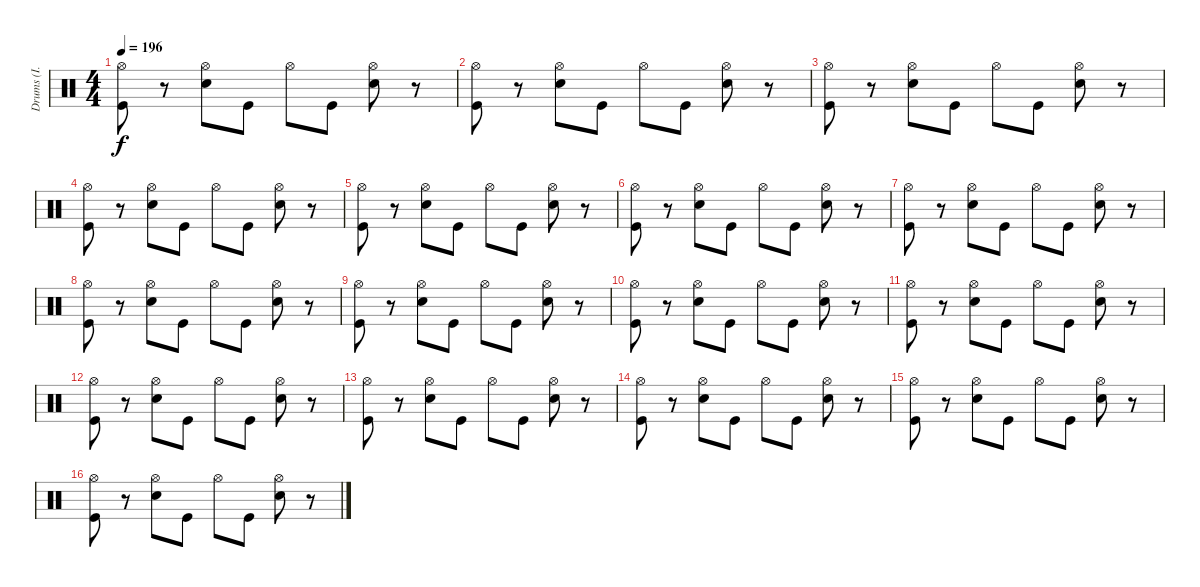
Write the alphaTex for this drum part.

\track ("Drums (I. Paice)" "Drums (I. ") {instrument percussion}
\staff {score}
\articulation defaults
\ts (4 4)
\tempo 196
\clef neutral
\ks c
("Hi-Hat (open)" "Kick (hit)").8{dy f} r.8 ("Hi-Hat (open)" "Snare (hit) 2").8 "Kick (hit)".8 "Hi-Hat (open)".8 "Kick (hit)".8 ("Hi-Hat (open)" "Snare (hit) 2").8 r.8 |
("Hi-Hat (open)" "Kick (hit)").8 r.8 ("Hi-Hat (open)" "Snare (hit) 2").8 "Kick (hit)".8 "Hi-Hat (open)".8 "Kick (hit)".8 ("Hi-Hat (open)" "Snare (hit) 2").8 r.8 |
("Hi-Hat (open)" "Kick (hit)").8 r.8 ("Hi-Hat (open)" "Snare (hit) 2").8 "Kick (hit)".8 "Hi-Hat (open)".8 "Kick (hit)".8 ("Hi-Hat (open)" "Snare (hit) 2").8 r.8 |
("Hi-Hat (open)" "Kick (hit)").8 r.8 ("Hi-Hat (open)" "Snare (hit) 2").8 "Kick (hit)".8 "Hi-Hat (open)".8 "Kick (hit)".8 ("Hi-Hat (open)" "Snare (hit) 2").8 r.8 |
("Hi-Hat (open)" "Kick (hit)").8 r.8 ("Hi-Hat (open)" "Snare (hit) 2").8 "Kick (hit)".8 "Hi-Hat (open)".8 "Kick (hit)".8 ("Hi-Hat (open)" "Snare (hit) 2").8 r.8 |
("Hi-Hat (open)" "Kick (hit)").8 r.8 ("Hi-Hat (open)" "Snare (hit) 2").8 "Kick (hit)".8 "Hi-Hat (open)".8 "Kick (hit)".8 ("Hi-Hat (open)" "Snare (hit) 2").8 r.8 |
("Hi-Hat (open)" "Kick (hit)").8 r.8 ("Hi-Hat (open)" "Snare (hit) 2").8 "Kick (hit)".8 "Hi-Hat (open)".8 "Kick (hit)".8 ("Hi-Hat (open)" "Snare (hit) 2").8 r.8 |
("Hi-Hat (open)" "Kick (hit)").8 r.8 ("Hi-Hat (open)" "Snare (hit) 2").8 "Kick (hit)".8 "Hi-Hat (open)".8 "Kick (hit)".8 ("Hi-Hat (open)" "Snare (hit) 2").8 r.8 |
("Hi-Hat (open)" "Kick (hit)").8 r.8 ("Hi-Hat (open)" "Snare (hit) 2").8 "Kick (hit)".8 "Hi-Hat (open)".8 "Kick (hit)".8 ("Hi-Hat (open)" "Snare (hit) 2").8 r.8 |
("Hi-Hat (open)" "Kick (hit)").8 r.8 ("Hi-Hat (open)" "Snare (hit) 2").8 "Kick (hit)".8 "Hi-Hat (open)".8 "Kick (hit)".8 ("Hi-Hat (open)" "Snare (hit) 2").8 r.8 |
("Hi-Hat (open)" "Kick (hit)").8 r.8 ("Hi-Hat (open)" "Snare (hit) 2").8 "Kick (hit)".8 "Hi-Hat (open)".8 "Kick (hit)".8 ("Hi-Hat (open)" "Snare (hit) 2").8 r.8 |
("Hi-Hat (open)" "Kick (hit)").8 r.8 ("Hi-Hat (open)" "Snare (hit) 2").8 "Kick (hit)".8 "Hi-Hat (open)".8 "Kick (hit)".8 ("Hi-Hat (open)" "Snare (hit) 2").8 r.8 |
("Hi-Hat (open)" "Kick (hit)").8 r.8 ("Hi-Hat (open)" "Snare (hit) 2").8 "Kick (hit)".8 "Hi-Hat (open)".8 "Kick (hit)".8 ("Hi-Hat (open)" "Snare (hit) 2").8 r.8 |
("Hi-Hat (open)" "Kick (hit)").8 r.8 ("Hi-Hat (open)" "Snare (hit) 2").8 "Kick (hit)".8 "Hi-Hat (open)".8 "Kick (hit)".8 ("Hi-Hat (open)" "Snare (hit) 2").8 r.8 |
("Hi-Hat (open)" "Kick (hit)").8 r.8 ("Hi-Hat (open)" "Snare (hit) 2").8 "Kick (hit)".8 "Hi-Hat (open)".8 "Kick (hit)".8 ("Hi-Hat (open)" "Snare (hit) 2").8 r.8 |
("Hi-Hat (open)" "Kick (hit)").8 r.8 ("Hi-Hat (open)" "Snare (hit) 2").8 "Kick (hit)".8 "Hi-Hat (open)".8 "Kick (hit)".8 ("Hi-Hat (open)" "Snare (hit) 2").8 r.8
